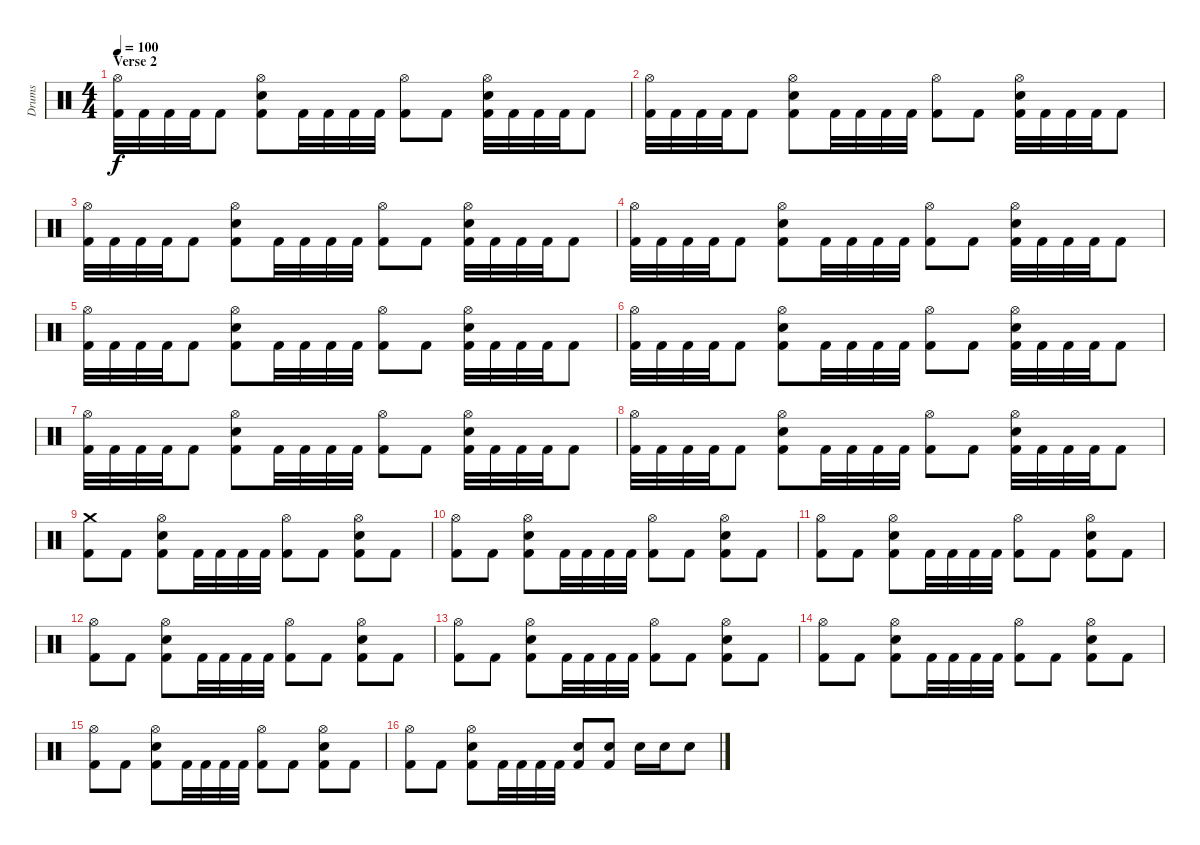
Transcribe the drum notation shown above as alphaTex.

\track ("Drums" "Drums") {instrument percussion}
\staff {score}
\articulation defaults
\ts (4 4)
\section ("" "Verse 2")
\tempo 100
\clef neutral
\ks c
("Hi-Hat (open)" "Kick (hit) 2").32{dy f} "Kick (hit) 2".32 "Kick (hit) 2".32 "Kick (hit) 2".32 "Kick (hit) 2".8 ("Hi-Hat (open)" "Snare (hit) 2" "Kick (hit) 2").8 "Kick (hit) 2".32 "Kick (hit) 2".32 "Kick (hit) 2".32 "Kick (hit) 2".32 ("Hi-Hat (open)" "Kick (hit) 2").8 "Kick (hit) 2".8 ("Hi-Hat (open)" "Snare (hit) 2" "Kick (hit) 2").32 "Kick (hit) 2".32 "Kick (hit) 2".32 "Kick (hit) 2".32 "Kick (hit) 2".8 |
("Hi-Hat (open)" "Kick (hit) 2").32 "Kick (hit) 2".32 "Kick (hit) 2".32 "Kick (hit) 2".32 "Kick (hit) 2".8 ("Hi-Hat (open)" "Snare (hit) 2" "Kick (hit) 2").8 "Kick (hit) 2".32 "Kick (hit) 2".32 "Kick (hit) 2".32 "Kick (hit) 2".32 ("Hi-Hat (open)" "Kick (hit) 2").8 "Kick (hit) 2".8 ("Hi-Hat (open)" "Snare (hit) 2" "Kick (hit) 2").32 "Kick (hit) 2".32 "Kick (hit) 2".32 "Kick (hit) 2".32 "Kick (hit) 2".8 |
("Hi-Hat (open)" "Kick (hit) 2").32 "Kick (hit) 2".32 "Kick (hit) 2".32 "Kick (hit) 2".32 "Kick (hit) 2".8 ("Hi-Hat (open)" "Snare (hit) 2" "Kick (hit) 2").8 "Kick (hit) 2".32 "Kick (hit) 2".32 "Kick (hit) 2".32 "Kick (hit) 2".32 ("Hi-Hat (open)" "Kick (hit) 2").8 "Kick (hit) 2".8 ("Hi-Hat (open)" "Snare (hit) 2" "Kick (hit) 2").32 "Kick (hit) 2".32 "Kick (hit) 2".32 "Kick (hit) 2".32 "Kick (hit) 2".8 |
("Hi-Hat (open)" "Kick (hit) 2").32 "Kick (hit) 2".32 "Kick (hit) 2".32 "Kick (hit) 2".32 "Kick (hit) 2".8 ("Hi-Hat (open)" "Snare (hit) 2" "Kick (hit) 2").8 "Kick (hit) 2".32 "Kick (hit) 2".32 "Kick (hit) 2".32 "Kick (hit) 2".32 ("Hi-Hat (open)" "Kick (hit) 2").8 "Kick (hit) 2".8 ("Hi-Hat (open)" "Snare (hit) 2" "Kick (hit) 2").32 "Kick (hit) 2".32 "Kick (hit) 2".32 "Kick (hit) 2".32 "Kick (hit) 2".8 |
("Hi-Hat (open)" "Kick (hit) 2").32 "Kick (hit) 2".32 "Kick (hit) 2".32 "Kick (hit) 2".32 "Kick (hit) 2".8 ("Hi-Hat (open)" "Snare (hit) 2" "Kick (hit) 2").8 "Kick (hit) 2".32 "Kick (hit) 2".32 "Kick (hit) 2".32 "Kick (hit) 2".32 ("Hi-Hat (open)" "Kick (hit) 2").8 "Kick (hit) 2".8 ("Hi-Hat (open)" "Snare (hit) 2" "Kick (hit) 2").32 "Kick (hit) 2".32 "Kick (hit) 2".32 "Kick (hit) 2".32 "Kick (hit) 2".8 |
("Hi-Hat (open)" "Kick (hit) 2").32 "Kick (hit) 2".32 "Kick (hit) 2".32 "Kick (hit) 2".32 "Kick (hit) 2".8 ("Hi-Hat (open)" "Snare (hit) 2" "Kick (hit) 2").8 "Kick (hit) 2".32 "Kick (hit) 2".32 "Kick (hit) 2".32 "Kick (hit) 2".32 ("Hi-Hat (open)" "Kick (hit) 2").8 "Kick (hit) 2".8 ("Hi-Hat (open)" "Snare (hit) 2" "Kick (hit) 2").32 "Kick (hit) 2".32 "Kick (hit) 2".32 "Kick (hit) 2".32 "Kick (hit) 2".8 |
("Hi-Hat (open)" "Kick (hit) 2").32 "Kick (hit) 2".32 "Kick (hit) 2".32 "Kick (hit) 2".32 "Kick (hit) 2".8 ("Hi-Hat (open)" "Snare (hit) 2" "Kick (hit) 2").8 "Kick (hit) 2".32 "Kick (hit) 2".32 "Kick (hit) 2".32 "Kick (hit) 2".32 ("Hi-Hat (open)" "Kick (hit) 2").8 "Kick (hit) 2".8 ("Hi-Hat (open)" "Snare (hit) 2" "Kick (hit) 2").32 "Kick (hit) 2".32 "Kick (hit) 2".32 "Kick (hit) 2".32 "Kick (hit) 2".8 |
("Hi-Hat (open)" "Kick (hit) 2").32 "Kick (hit) 2".32 "Kick (hit) 2".32 "Kick (hit) 2".32 "Kick (hit) 2".8 ("Hi-Hat (open)" "Snare (hit) 2" "Kick (hit) 2").8 "Kick (hit) 2".32 "Kick (hit) 2".32 "Kick (hit) 2".32 "Kick (hit) 2".32 ("Hi-Hat (open)" "Kick (hit) 2").8 "Kick (hit) 2".8 ("Hi-Hat (open)" "Snare (hit) 2" "Kick (hit) 2").32 "Kick (hit) 2".32 "Kick (hit) 2".32 "Kick (hit) 2".32 "Kick (hit) 2".8 |
("Crash medium (hit)" "Kick (hit) 2").8 "Kick (hit) 2".8 ("Hi-Hat (open)" "Snare (hit) 2" "Kick (hit) 2").8 "Kick (hit) 2".32 "Kick (hit) 2".32 "Kick (hit) 2".32 "Kick (hit) 2".32 ("Hi-Hat (open)" "Kick (hit) 2").8 "Kick (hit) 2".8 ("Hi-Hat (open)" "Snare (hit) 2" "Kick (hit) 2").8 "Kick (hit) 2".8 |
("Hi-Hat (open)" "Kick (hit) 2").8 "Kick (hit) 2".8 ("Hi-Hat (open)" "Snare (hit) 2" "Kick (hit) 2").8 "Kick (hit) 2".32 "Kick (hit) 2".32 "Kick (hit) 2".32 "Kick (hit) 2".32 ("Hi-Hat (open)" "Kick (hit) 2").8 "Kick (hit) 2".8 ("Hi-Hat (open)" "Snare (hit) 2" "Kick (hit) 2").8 "Kick (hit) 2".8 |
("Hi-Hat (open)" "Kick (hit) 2").8 "Kick (hit) 2".8 ("Hi-Hat (open)" "Snare (hit) 2" "Kick (hit) 2").8 "Kick (hit) 2".32 "Kick (hit) 2".32 "Kick (hit) 2".32 "Kick (hit) 2".32 ("Hi-Hat (open)" "Kick (hit) 2").8 "Kick (hit) 2".8 ("Hi-Hat (open)" "Snare (hit) 2" "Kick (hit) 2").8 "Kick (hit) 2".8 |
("Hi-Hat (open)" "Kick (hit) 2").8 "Kick (hit) 2".8 ("Hi-Hat (open)" "Snare (hit) 2" "Kick (hit) 2").8 "Kick (hit) 2".32 "Kick (hit) 2".32 "Kick (hit) 2".32 "Kick (hit) 2".32 ("Hi-Hat (open)" "Kick (hit) 2").8 "Kick (hit) 2".8 ("Hi-Hat (open)" "Snare (hit) 2" "Kick (hit) 2").8 "Kick (hit) 2".8 |
("Hi-Hat (open)" "Kick (hit) 2").8 "Kick (hit) 2".8 ("Hi-Hat (open)" "Snare (hit) 2" "Kick (hit) 2").8 "Kick (hit) 2".32 "Kick (hit) 2".32 "Kick (hit) 2".32 "Kick (hit) 2".32 ("Hi-Hat (open)" "Kick (hit) 2").8 "Kick (hit) 2".8 ("Hi-Hat (open)" "Snare (hit) 2" "Kick (hit) 2").8 "Kick (hit) 2".8 |
("Hi-Hat (open)" "Kick (hit) 2").8 "Kick (hit) 2".8 ("Hi-Hat (open)" "Snare (hit) 2" "Kick (hit) 2").8 "Kick (hit) 2".32 "Kick (hit) 2".32 "Kick (hit) 2".32 "Kick (hit) 2".32 ("Hi-Hat (open)" "Kick (hit) 2").8 "Kick (hit) 2".8 ("Hi-Hat (open)" "Snare (hit) 2" "Kick (hit) 2").8 "Kick (hit) 2".8 |
("Hi-Hat (open)" "Kick (hit) 2").8 "Kick (hit) 2".8 ("Hi-Hat (open)" "Snare (hit) 2" "Kick (hit) 2").8 "Kick (hit) 2".32 "Kick (hit) 2".32 "Kick (hit) 2".32 "Kick (hit) 2".32 ("Hi-Hat (open)" "Kick (hit) 2").8 "Kick (hit) 2".8 ("Hi-Hat (open)" "Snare (hit) 2" "Kick (hit) 2").8 "Kick (hit) 2".8 |
("Hi-Hat (open)" "Kick (hit) 2").8 "Kick (hit) 2".8 ("Hi-Hat (open)" "Snare (hit) 2" "Kick (hit) 2").8 "Kick (hit) 2".32 "Kick (hit) 2".32 "Kick (hit) 2".32 "Kick (hit) 2".32 ("Snare (hit) 2" "Kick (hit) 2").8 ("Snare (hit) 2" "Kick (hit) 2").8 "Snare (hit) 2".16 "Snare (hit) 2".16 "Snare (hit) 2".8
